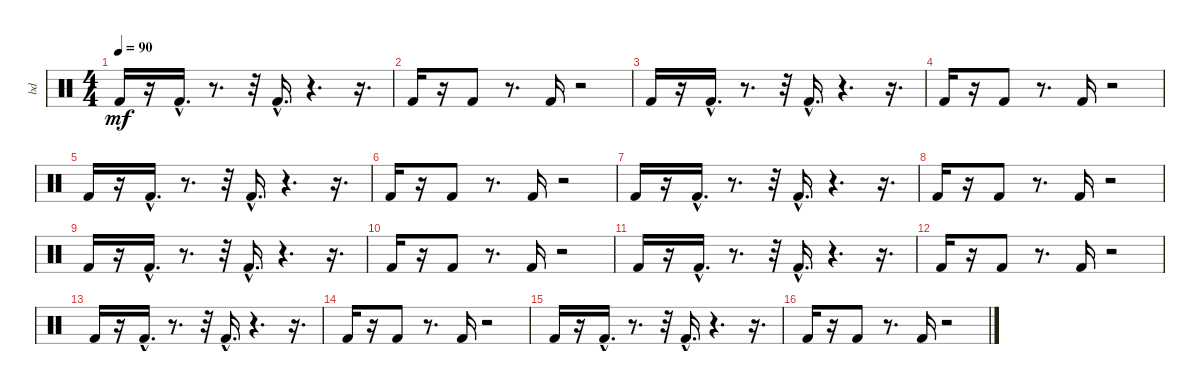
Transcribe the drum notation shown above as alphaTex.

\track ("bd" "bd") {instrument percussion}
\staff {score}
\articulation defaults
\ts (4 4)
\tempo 90
\clef neutral
\ks c "Kick (hit) 2".16{dy mf}
r.16 "Kick (hit) 2"{hac}.16{d} r.8{d} r.32 "Kick (hit) 2"{hac}.16{d} r.4{d} r.16{d} |
"Kick (hit) 2".16 r.16 "Kick (hit) 2".8 r.8{d} "Kick (hit) 2".16 r.2 |
"Kick (hit) 2".16 r.16 "Kick (hit) 2"{hac}.16{d} r.8{d} r.32 "Kick (hit) 2"{hac}.16{d} r.4{d} r.16{d} |
"Kick (hit) 2".16 r.16 "Kick (hit) 2".8 r.8{d} "Kick (hit) 2".16 r.2 |
"Kick (hit) 2".16 r.16 "Kick (hit) 2"{hac}.16{d} r.8{d} r.32 "Kick (hit) 2"{hac}.16{d} r.4{d} r.16{d} |
"Kick (hit) 2".16 r.16 "Kick (hit) 2".8 r.8{d} "Kick (hit) 2".16 r.2 |
"Kick (hit) 2".16 r.16 "Kick (hit) 2"{hac}.16{d} r.8{d} r.32 "Kick (hit) 2"{hac}.16{d} r.4{d} r.16{d} |
"Kick (hit) 2".16 r.16 "Kick (hit) 2".8 r.8{d} "Kick (hit) 2".16 r.2 |
"Kick (hit) 2".16 r.16 "Kick (hit) 2"{hac}.16{d} r.8{d} r.32 "Kick (hit) 2"{hac}.16{d} r.4{d} r.16{d} |
"Kick (hit) 2".16 r.16 "Kick (hit) 2".8 r.8{d} "Kick (hit) 2".16 r.2 |
"Kick (hit) 2".16 r.16 "Kick (hit) 2"{hac}.16{d} r.8{d} r.32 "Kick (hit) 2"{hac}.16{d} r.4{d} r.16{d} |
"Kick (hit) 2".16 r.16 "Kick (hit) 2".8 r.8{d} "Kick (hit) 2".16 r.2 |
"Kick (hit) 2".16 r.16 "Kick (hit) 2"{hac}.16{d} r.8{d} r.32 "Kick (hit) 2"{hac}.16{d} r.4{d} r.16{d} |
"Kick (hit) 2".16 r.16 "Kick (hit) 2".8 r.8{d} "Kick (hit) 2".16 r.2 |
"Kick (hit) 2".16 r.16 "Kick (hit) 2"{hac}.16{d} r.8{d} r.32 "Kick (hit) 2"{hac}.16{d} r.4{d} r.16{d} |
"Kick (hit) 2".16 r.16 "Kick (hit) 2".8 r.8{d} "Kick (hit) 2".16 r.2
